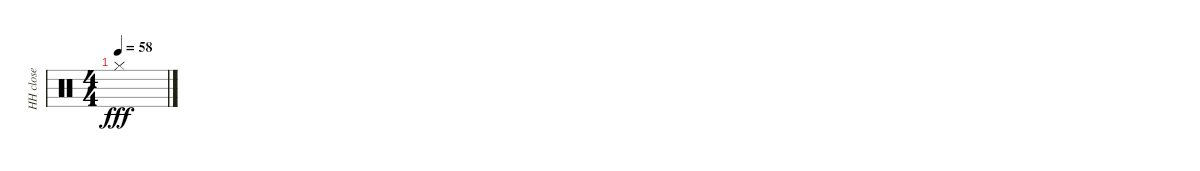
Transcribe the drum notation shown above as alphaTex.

\track ("HH close" "HH close") {instrument percussion}
\staff {score}
\articulation defaults
\ts (4 4)
\tempo 58
\clef neutral
\ks c "Hi-Hat (closed)".1{dy fff}
